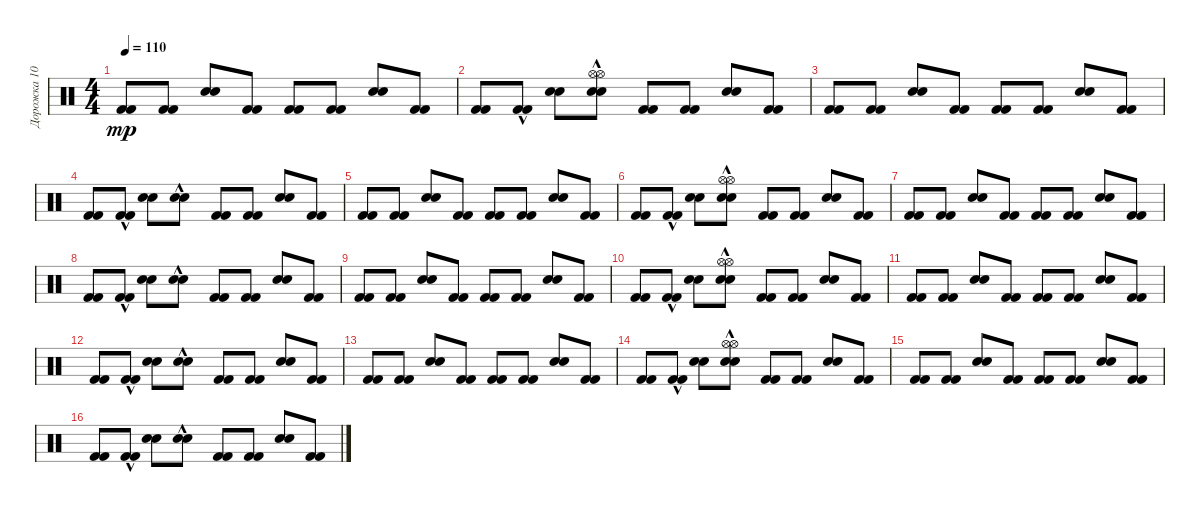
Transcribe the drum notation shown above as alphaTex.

\track ("Дорожка 10" "Дорожка 10") {instrument percussion}
\staff {score}
\articulation defaults
\ts (4 4)
\tempo 110
\clef neutral
\ks c
("Kick (hit) 2" "Kick (hit) 2").8{dy mp} ("Kick (hit) 2" "Kick (hit) 2").8 ("Snare (hit) 2" "Snare (hit) 2").8 ("Kick (hit) 2" "Kick (hit) 2").8 ("Kick (hit) 2" "Kick (hit) 2").8 ("Kick (hit) 2" "Kick (hit) 2").8 ("Snare (hit) 2" "Snare (hit) 2").8 ("Kick (hit) 2" "Kick (hit) 2").8 |
("Kick (hit) 2" "Kick (hit) 2").8 ("Kick (hit) 2"{hac} "Kick (hit) 2"{hac}).8 ("Snare (hit) 2" "Snare (hit) 2").8 ("Snare (hit) 2"{hac} "Hi-Hat (open)" "Snare (hit) 2"{hac} "Hi-Hat (open)").8 ("Kick (hit) 2" "Kick (hit) 2").8 ("Kick (hit) 2" "Kick (hit) 2").8 ("Snare (hit) 2" "Snare (hit) 2").8 ("Kick (hit) 2" "Kick (hit) 2").8 |
("Kick (hit) 2" "Kick (hit) 2").8 ("Kick (hit) 2" "Kick (hit) 2").8 ("Snare (hit) 2" "Snare (hit) 2").8 ("Kick (hit) 2" "Kick (hit) 2").8 ("Kick (hit) 2" "Kick (hit) 2").8 ("Kick (hit) 2" "Kick (hit) 2").8 ("Snare (hit) 2" "Snare (hit) 2").8 ("Kick (hit) 2" "Kick (hit) 2").8 |
("Kick (hit) 2" "Kick (hit) 2").8 ("Kick (hit) 2"{hac} "Kick (hit) 2"{hac}).8 ("Snare (hit) 2" "Snare (hit) 2").8 ("Snare (hit) 2"{hac} "Snare (hit) 2"{hac}).8 ("Kick (hit) 2" "Kick (hit) 2").8 ("Kick (hit) 2" "Kick (hit) 2").8 ("Snare (hit) 2" "Snare (hit) 2").8 ("Kick (hit) 2" "Kick (hit) 2").8 |
("Kick (hit) 2" "Kick (hit) 2").8 ("Kick (hit) 2" "Kick (hit) 2").8 ("Snare (hit) 2" "Snare (hit) 2").8 ("Kick (hit) 2" "Kick (hit) 2").8 ("Kick (hit) 2" "Kick (hit) 2").8 ("Kick (hit) 2" "Kick (hit) 2").8 ("Snare (hit) 2" "Snare (hit) 2").8 ("Kick (hit) 2" "Kick (hit) 2").8 |
("Kick (hit) 2" "Kick (hit) 2").8 ("Kick (hit) 2"{hac} "Kick (hit) 2"{hac}).8 ("Snare (hit) 2" "Snare (hit) 2").8 ("Snare (hit) 2"{hac} "Hi-Hat (open)" "Snare (hit) 2"{hac} "Hi-Hat (open)").8 ("Kick (hit) 2" "Kick (hit) 2").8 ("Kick (hit) 2" "Kick (hit) 2").8 ("Snare (hit) 2" "Snare (hit) 2").8 ("Kick (hit) 2" "Kick (hit) 2").8 |
("Kick (hit) 2" "Kick (hit) 2").8 ("Kick (hit) 2" "Kick (hit) 2").8 ("Snare (hit) 2" "Snare (hit) 2").8 ("Kick (hit) 2" "Kick (hit) 2").8 ("Kick (hit) 2" "Kick (hit) 2").8 ("Kick (hit) 2" "Kick (hit) 2").8 ("Snare (hit) 2" "Snare (hit) 2").8 ("Kick (hit) 2" "Kick (hit) 2").8 |
("Kick (hit) 2" "Kick (hit) 2").8 ("Kick (hit) 2"{hac} "Kick (hit) 2"{hac}).8 ("Snare (hit) 2" "Snare (hit) 2").8 ("Snare (hit) 2"{hac} "Snare (hit) 2"{hac}).8 ("Kick (hit) 2" "Kick (hit) 2").8 ("Kick (hit) 2" "Kick (hit) 2").8 ("Snare (hit) 2" "Snare (hit) 2").8 ("Kick (hit) 2" "Kick (hit) 2").8 |
("Kick (hit) 2" "Kick (hit) 2").8 ("Kick (hit) 2" "Kick (hit) 2").8 ("Snare (hit) 2" "Snare (hit) 2").8 ("Kick (hit) 2" "Kick (hit) 2").8 ("Kick (hit) 2" "Kick (hit) 2").8 ("Kick (hit) 2" "Kick (hit) 2").8 ("Snare (hit) 2" "Snare (hit) 2").8 ("Kick (hit) 2" "Kick (hit) 2").8 |
("Kick (hit) 2" "Kick (hit) 2").8 ("Kick (hit) 2"{hac} "Kick (hit) 2"{hac}).8 ("Snare (hit) 2" "Snare (hit) 2").8 ("Snare (hit) 2"{hac} "Hi-Hat (open)" "Snare (hit) 2"{hac} "Hi-Hat (open)").8 ("Kick (hit) 2" "Kick (hit) 2").8 ("Kick (hit) 2" "Kick (hit) 2").8 ("Snare (hit) 2" "Snare (hit) 2").8 ("Kick (hit) 2" "Kick (hit) 2").8 |
("Kick (hit) 2" "Kick (hit) 2").8 ("Kick (hit) 2" "Kick (hit) 2").8 ("Snare (hit) 2" "Snare (hit) 2").8 ("Kick (hit) 2" "Kick (hit) 2").8 ("Kick (hit) 2" "Kick (hit) 2").8 ("Kick (hit) 2" "Kick (hit) 2").8 ("Snare (hit) 2" "Snare (hit) 2").8 ("Kick (hit) 2" "Kick (hit) 2").8 |
("Kick (hit) 2" "Kick (hit) 2").8 ("Kick (hit) 2"{hac} "Kick (hit) 2"{hac}).8 ("Snare (hit) 2" "Snare (hit) 2").8 ("Snare (hit) 2"{hac} "Snare (hit) 2"{hac}).8 ("Kick (hit) 2" "Kick (hit) 2").8 ("Kick (hit) 2" "Kick (hit) 2").8 ("Snare (hit) 2" "Snare (hit) 2").8 ("Kick (hit) 2" "Kick (hit) 2").8 |
("Kick (hit) 2" "Kick (hit) 2").8 ("Kick (hit) 2" "Kick (hit) 2").8 ("Snare (hit) 2" "Snare (hit) 2").8 ("Kick (hit) 2" "Kick (hit) 2").8 ("Kick (hit) 2" "Kick (hit) 2").8 ("Kick (hit) 2" "Kick (hit) 2").8 ("Snare (hit) 2" "Snare (hit) 2").8 ("Kick (hit) 2" "Kick (hit) 2").8 |
("Kick (hit) 2" "Kick (hit) 2").8 ("Kick (hit) 2"{hac} "Kick (hit) 2"{hac}).8 ("Snare (hit) 2" "Snare (hit) 2").8 ("Snare (hit) 2"{hac} "Hi-Hat (open)" "Snare (hit) 2"{hac} "Hi-Hat (open)").8 ("Kick (hit) 2" "Kick (hit) 2").8 ("Kick (hit) 2" "Kick (hit) 2").8 ("Snare (hit) 2" "Snare (hit) 2").8 ("Kick (hit) 2" "Kick (hit) 2").8 |
("Kick (hit) 2" "Kick (hit) 2").8 ("Kick (hit) 2" "Kick (hit) 2").8 ("Snare (hit) 2" "Snare (hit) 2").8 ("Kick (hit) 2" "Kick (hit) 2").8 ("Kick (hit) 2" "Kick (hit) 2").8 ("Kick (hit) 2" "Kick (hit) 2").8 ("Snare (hit) 2" "Snare (hit) 2").8 ("Kick (hit) 2" "Kick (hit) 2").8 |
("Kick (hit) 2" "Kick (hit) 2").8 ("Kick (hit) 2"{hac} "Kick (hit) 2"{hac}).8 ("Snare (hit) 2" "Snare (hit) 2").8 ("Snare (hit) 2"{hac} "Snare (hit) 2"{hac}).8 ("Kick (hit) 2" "Kick (hit) 2").8 ("Kick (hit) 2" "Kick (hit) 2").8 ("Snare (hit) 2" "Snare (hit) 2").8 ("Kick (hit) 2" "Kick (hit) 2").8
